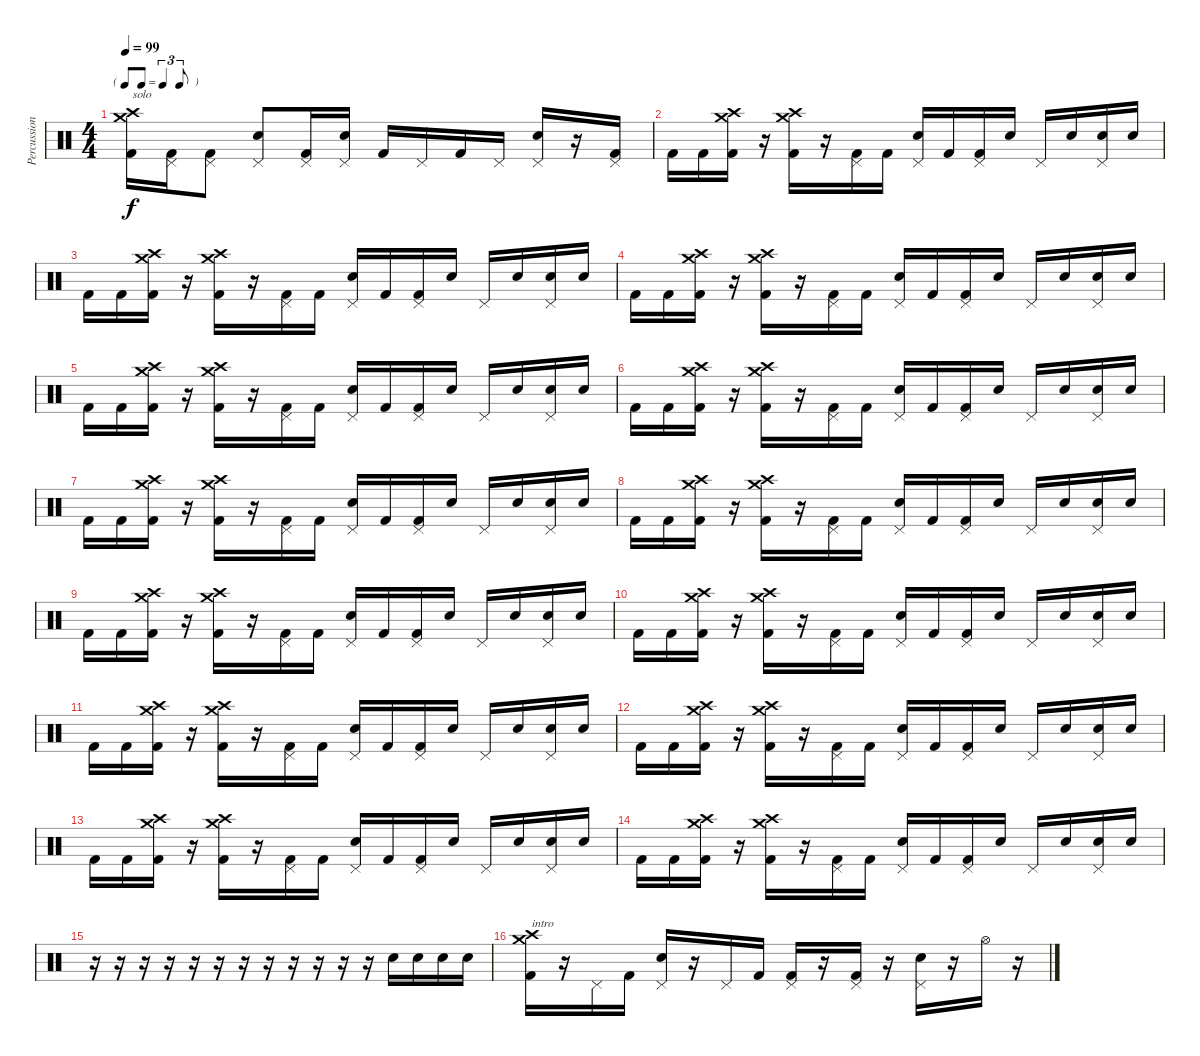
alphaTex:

\track ("Percussion" "Percussion") {instrument percussion}
\staff {score}
\articulation defaults
\ts (4 4)
\tf triplet8th
\tempo 99
\clef neutral
\ks c
("Crash high (hit)" "Crash medium (hit)" "Kick (hit) 2").16{txt "solo" dy f} ("Pedal Hi-Hat (hit)" "Kick (hit) 2").16 ("Pedal Hi-Hat (hit)" "Kick (hit) 2").8 ("Pedal Hi-Hat (hit)" "Electric Snare (hit)").8 ("Pedal Hi-Hat (hit)" "Kick (hit) 2").16 ("Pedal Hi-Hat (hit)" "Electric Snare (hit)").16 "Kick (hit) 2".16 "Pedal Hi-Hat (hit)".16 "Kick (hit) 2".16 "Pedal Hi-Hat (hit)".16 ("Pedal Hi-Hat (hit)" "Electric Snare (hit)").16 r.16 ("Pedal Hi-Hat (hit)" "Kick (hit) 2").16 |
"Kick (hit) 2".16 "Kick (hit) 2".16 ("Crash high (hit)" "Crash medium (hit)" "Kick (hit) 2").16 r.16 ("Crash high (hit)" "Crash medium (hit)" "Kick (hit) 2").16 r.16 ("Pedal Hi-Hat (hit)" "Kick (hit) 2").16 "Kick (hit) 2".16 ("Pedal Hi-Hat (hit)" "Electric Snare (hit)").16 "Kick (hit) 2".16 ("Pedal Hi-Hat (hit)" "Kick (hit) 2").16 "Electric Snare (hit)".16 "Pedal Hi-Hat (hit)".16 "Electric Snare (hit)".16 ("Pedal Hi-Hat (hit)" "Electric Snare (hit)").16 "Electric Snare (hit)".16 |
"Kick (hit) 2".16 "Kick (hit) 2".16 ("Crash high (hit)" "Crash medium (hit)" "Kick (hit) 2").16 r.16 ("Crash high (hit)" "Crash medium (hit)" "Kick (hit) 2").16 r.16 ("Pedal Hi-Hat (hit)" "Kick (hit) 2").16 "Kick (hit) 2".16 ("Pedal Hi-Hat (hit)" "Electric Snare (hit)").16 "Kick (hit) 2".16 ("Pedal Hi-Hat (hit)" "Kick (hit) 2").16 "Electric Snare (hit)".16 "Pedal Hi-Hat (hit)".16 "Electric Snare (hit)".16 ("Pedal Hi-Hat (hit)" "Electric Snare (hit)").16 "Electric Snare (hit)".16 |
"Kick (hit) 2".16 "Kick (hit) 2".16 ("Crash high (hit)" "Crash medium (hit)" "Kick (hit) 2").16 r.16 ("Crash high (hit)" "Crash medium (hit)" "Kick (hit) 2").16 r.16 ("Pedal Hi-Hat (hit)" "Kick (hit) 2").16 "Kick (hit) 2".16 ("Pedal Hi-Hat (hit)" "Electric Snare (hit)").16 "Kick (hit) 2".16 ("Pedal Hi-Hat (hit)" "Kick (hit) 2").16 "Electric Snare (hit)".16 "Pedal Hi-Hat (hit)".16 "Electric Snare (hit)".16 ("Pedal Hi-Hat (hit)" "Electric Snare (hit)").16 "Electric Snare (hit)".16 |
"Kick (hit) 2".16 "Kick (hit) 2".16 ("Crash high (hit)" "Crash medium (hit)" "Kick (hit) 2").16 r.16 ("Crash high (hit)" "Crash medium (hit)" "Kick (hit) 2").16 r.16 ("Pedal Hi-Hat (hit)" "Kick (hit) 2").16 "Kick (hit) 2".16 ("Pedal Hi-Hat (hit)" "Electric Snare (hit)").16 "Kick (hit) 2".16 ("Pedal Hi-Hat (hit)" "Kick (hit) 2").16 "Electric Snare (hit)".16 "Pedal Hi-Hat (hit)".16 "Electric Snare (hit)".16 ("Pedal Hi-Hat (hit)" "Electric Snare (hit)").16 "Electric Snare (hit)".16 |
"Kick (hit) 2".16 "Kick (hit) 2".16 ("Crash high (hit)" "Crash medium (hit)" "Kick (hit) 2").16 r.16 ("Crash high (hit)" "Crash medium (hit)" "Kick (hit) 2").16 r.16 ("Pedal Hi-Hat (hit)" "Kick (hit) 2").16 "Kick (hit) 2".16 ("Pedal Hi-Hat (hit)" "Electric Snare (hit)").16 "Kick (hit) 2".16 ("Pedal Hi-Hat (hit)" "Kick (hit) 2").16 "Electric Snare (hit)".16 "Pedal Hi-Hat (hit)".16 "Electric Snare (hit)".16 ("Pedal Hi-Hat (hit)" "Electric Snare (hit)").16 "Electric Snare (hit)".16 |
"Kick (hit) 2".16 "Kick (hit) 2".16 ("Crash high (hit)" "Crash medium (hit)" "Kick (hit) 2").16 r.16 ("Crash high (hit)" "Crash medium (hit)" "Kick (hit) 2").16 r.16 ("Pedal Hi-Hat (hit)" "Kick (hit) 2").16 "Kick (hit) 2".16 ("Pedal Hi-Hat (hit)" "Electric Snare (hit)").16 "Kick (hit) 2".16 ("Pedal Hi-Hat (hit)" "Kick (hit) 2").16 "Electric Snare (hit)".16 "Pedal Hi-Hat (hit)".16 "Electric Snare (hit)".16 ("Pedal Hi-Hat (hit)" "Electric Snare (hit)").16 "Electric Snare (hit)".16 |
"Kick (hit) 2".16 "Kick (hit) 2".16 ("Crash high (hit)" "Crash medium (hit)" "Kick (hit) 2").16 r.16 ("Crash high (hit)" "Crash medium (hit)" "Kick (hit) 2").16 r.16 ("Pedal Hi-Hat (hit)" "Kick (hit) 2").16 "Kick (hit) 2".16 ("Pedal Hi-Hat (hit)" "Electric Snare (hit)").16 "Kick (hit) 2".16 ("Pedal Hi-Hat (hit)" "Kick (hit) 2").16 "Electric Snare (hit)".16 "Pedal Hi-Hat (hit)".16 "Electric Snare (hit)".16 ("Pedal Hi-Hat (hit)" "Electric Snare (hit)").16 "Electric Snare (hit)".16 |
"Kick (hit) 2".16 "Kick (hit) 2".16 ("Crash high (hit)" "Crash medium (hit)" "Kick (hit) 2").16 r.16 ("Crash high (hit)" "Crash medium (hit)" "Kick (hit) 2").16 r.16 ("Pedal Hi-Hat (hit)" "Kick (hit) 2").16 "Kick (hit) 2".16 ("Pedal Hi-Hat (hit)" "Electric Snare (hit)").16 "Kick (hit) 2".16 ("Pedal Hi-Hat (hit)" "Kick (hit) 2").16 "Electric Snare (hit)".16 "Pedal Hi-Hat (hit)".16 "Electric Snare (hit)".16 ("Pedal Hi-Hat (hit)" "Electric Snare (hit)").16 "Electric Snare (hit)".16 |
"Kick (hit) 2".16 "Kick (hit) 2".16 ("Crash high (hit)" "Crash medium (hit)" "Kick (hit) 2").16 r.16 ("Crash high (hit)" "Crash medium (hit)" "Kick (hit) 2").16 r.16 ("Pedal Hi-Hat (hit)" "Kick (hit) 2").16 "Kick (hit) 2".16 ("Pedal Hi-Hat (hit)" "Electric Snare (hit)").16 "Kick (hit) 2".16 ("Pedal Hi-Hat (hit)" "Kick (hit) 2").16 "Electric Snare (hit)".16 "Pedal Hi-Hat (hit)".16 "Electric Snare (hit)".16 ("Pedal Hi-Hat (hit)" "Electric Snare (hit)").16 "Electric Snare (hit)".16 |
"Kick (hit) 2".16 "Kick (hit) 2".16 ("Crash high (hit)" "Crash medium (hit)" "Kick (hit) 2").16 r.16 ("Crash high (hit)" "Crash medium (hit)" "Kick (hit) 2").16 r.16 ("Pedal Hi-Hat (hit)" "Kick (hit) 2").16 "Kick (hit) 2".16 ("Pedal Hi-Hat (hit)" "Electric Snare (hit)").16 "Kick (hit) 2".16 ("Pedal Hi-Hat (hit)" "Kick (hit) 2").16 "Electric Snare (hit)".16 "Pedal Hi-Hat (hit)".16 "Electric Snare (hit)".16 ("Pedal Hi-Hat (hit)" "Electric Snare (hit)").16 "Electric Snare (hit)".16 |
"Kick (hit) 2".16 "Kick (hit) 2".16 ("Crash high (hit)" "Crash medium (hit)" "Kick (hit) 2").16 r.16 ("Crash high (hit)" "Crash medium (hit)" "Kick (hit) 2").16 r.16 ("Pedal Hi-Hat (hit)" "Kick (hit) 2").16 "Kick (hit) 2".16 ("Pedal Hi-Hat (hit)" "Electric Snare (hit)").16 "Kick (hit) 2".16 ("Pedal Hi-Hat (hit)" "Kick (hit) 2").16 "Electric Snare (hit)".16 "Pedal Hi-Hat (hit)".16 "Electric Snare (hit)".16 ("Pedal Hi-Hat (hit)" "Electric Snare (hit)").16 "Electric Snare (hit)".16 |
"Kick (hit) 2".16 "Kick (hit) 2".16 ("Crash high (hit)" "Crash medium (hit)" "Kick (hit) 2").16 r.16 ("Crash high (hit)" "Crash medium (hit)" "Kick (hit) 2").16 r.16 ("Pedal Hi-Hat (hit)" "Kick (hit) 2").16 "Kick (hit) 2".16 ("Pedal Hi-Hat (hit)" "Electric Snare (hit)").16 "Kick (hit) 2".16 ("Pedal Hi-Hat (hit)" "Kick (hit) 2").16 "Electric Snare (hit)".16 "Pedal Hi-Hat (hit)".16 "Electric Snare (hit)".16 ("Pedal Hi-Hat (hit)" "Electric Snare (hit)").16 "Electric Snare (hit)".16 |
"Kick (hit) 2".16 "Kick (hit) 2".16 ("Crash high (hit)" "Crash medium (hit)" "Kick (hit) 2").16 r.16 ("Crash high (hit)" "Crash medium (hit)" "Kick (hit) 2").16 r.16 ("Pedal Hi-Hat (hit)" "Kick (hit) 2").16 "Kick (hit) 2".16 ("Pedal Hi-Hat (hit)" "Electric Snare (hit)").16 "Kick (hit) 2".16 ("Pedal Hi-Hat (hit)" "Kick (hit) 2").16 "Electric Snare (hit)".16 "Pedal Hi-Hat (hit)".16 "Electric Snare (hit)".16 ("Pedal Hi-Hat (hit)" "Electric Snare (hit)").16 "Electric Snare (hit)".16 |
r.16 r.16 r.16 r.16 r.16 r.16 r.16 r.16 r.16 r.16 r.16 r.16 "Electric Snare (hit)".16 "Electric Snare (hit)".16 "Electric Snare (hit)".16 "Electric Snare (hit)".16 |
("Crash high (hit)" "Crash medium (hit)" "Kick (hit) 2").16{txt "intro"} r.16 "Pedal Hi-Hat (hit)".16 "Kick (hit) 2".16 ("Pedal Hi-Hat (hit)" "Electric Snare (hit)").16 r.16 "Pedal Hi-Hat (hit)".16 "Kick (hit) 2".16 ("Pedal Hi-Hat (hit)" "Kick (hit) 2").16 r.16 ("Pedal Hi-Hat (hit)" "Kick (hit) 2").16 r.16 ("Pedal Hi-Hat (hit)" "Electric Snare (hit)").16 r.16 "Hi-Hat (open)".16 r.16
